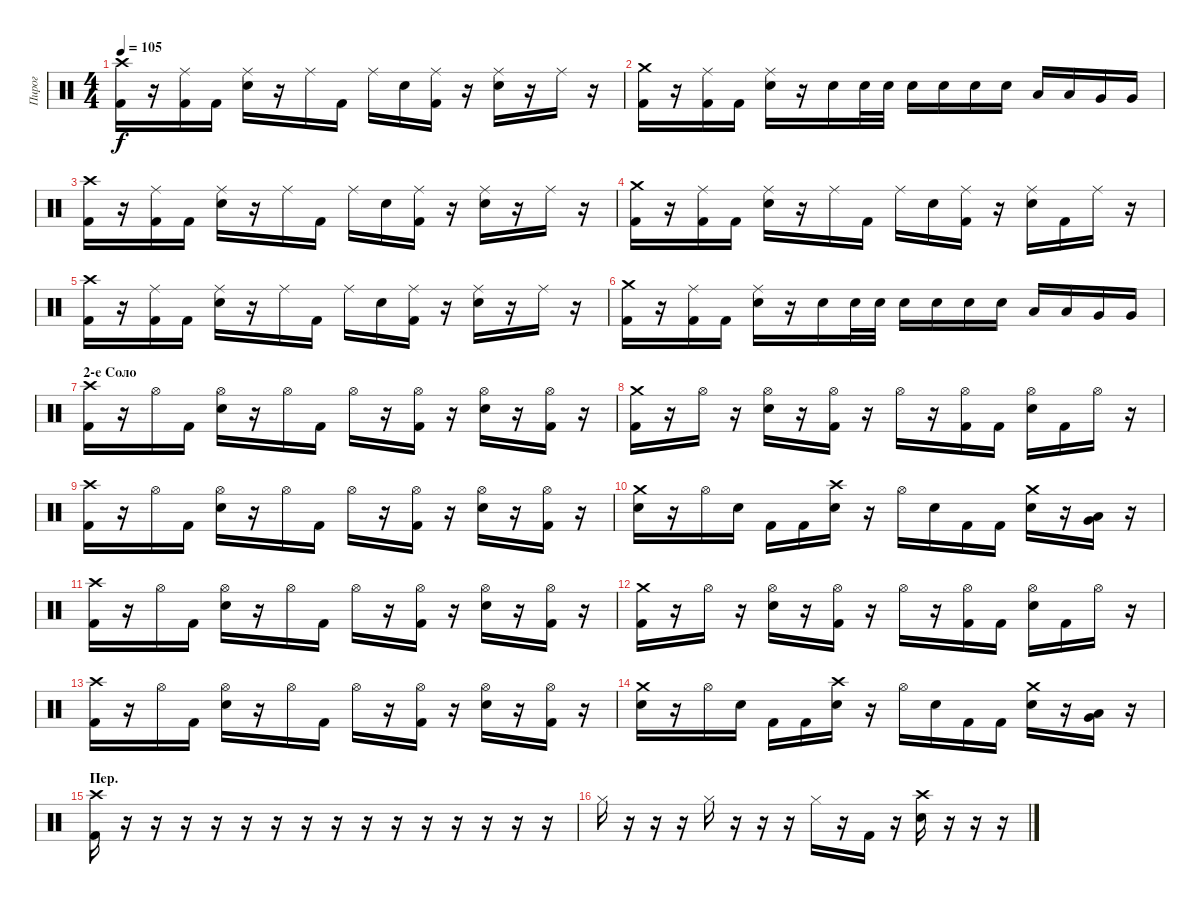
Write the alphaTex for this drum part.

\track ("Пирог" "Пирог") {instrument percussion}
\staff {score}
\articulation defaults
\ts (4 4)
\tempo 105
\clef neutral
\ks c
("Crash high (hit)" "Kick (hit) 2").16{dy f} r.16 ("Ride (middle)" "Kick (hit) 2").16 "Kick (hit) 2".16 ("Ride (middle)" "Electric Snare (hit)").16 r.16 "Ride (middle)".16 "Kick (hit) 2".16 "Ride (middle)".16 "Electric Snare (hit)".16 ("Ride (middle)" "Kick (hit) 2").16 r.16 ("Ride (middle)" "Electric Snare (hit)").16 r.16 "Ride (middle)".16 r.16 |
("Crash medium (hit)" "Kick (hit) 2").16 r.16 ("Ride (middle)" "Kick (hit) 2").16 "Kick (hit) 2".16 ("Ride (middle)" "Electric Snare (hit)").16 r.16 "Electric Snare (hit)".16 "Electric Snare (hit)".32 "Electric Snare (hit)".32 "Electric Snare (hit)".16 "Electric Snare (hit)".16 "Electric Snare (hit)".16 "Electric Snare (hit)".16 "Low Tom (hit)".16 "Low Tom (hit)".16 "Very Low Tom (hit)".16 "Very Low Tom (hit)".16 |
("Crash high (hit)" "Kick (hit) 2").16 r.16 ("Ride (middle)" "Kick (hit) 2").16 "Kick (hit) 2".16 ("Ride (middle)" "Electric Snare (hit)").16 r.16 "Ride (middle)".16 "Kick (hit) 2".16 "Ride (middle)".16 "Electric Snare (hit)".16 ("Ride (middle)" "Kick (hit) 2").16 r.16 ("Ride (middle)" "Electric Snare (hit)").16 r.16 "Ride (middle)".16 r.16 |
("Crash medium (hit)" "Kick (hit) 2").16 r.16 ("Ride (middle)" "Kick (hit) 2").16 "Kick (hit) 2".16 ("Ride (middle)" "Electric Snare (hit)").16 r.16 "Ride (middle)".16 "Kick (hit) 2".16 "Ride (middle)".16 "Electric Snare (hit)".16 ("Ride (middle)" "Kick (hit) 2").16 r.16 ("Ride (middle)" "Electric Snare (hit)").16 "Kick (hit) 2".16 "Ride (middle)".16 r.16 |
("Crash high (hit)" "Kick (hit) 2").16 r.16 ("Ride (middle)" "Kick (hit) 2").16 "Kick (hit) 2".16 ("Ride (middle)" "Electric Snare (hit)").16 r.16 "Ride (middle)".16 "Kick (hit) 2".16 "Ride (middle)".16 "Electric Snare (hit)".16 ("Ride (middle)" "Kick (hit) 2").16 r.16 ("Ride (middle)" "Electric Snare (hit)").16 r.16 "Ride (middle)".16 r.16 |
("Crash medium (hit)" "Kick (hit) 2").16 r.16 ("Ride (middle)" "Kick (hit) 2").16 "Kick (hit) 2".16 ("Ride (middle)" "Electric Snare (hit)").16 r.16 "Electric Snare (hit)".16 "Electric Snare (hit)".32 "Electric Snare (hit)".32 "Electric Snare (hit)".16 "Electric Snare (hit)".16 "Electric Snare (hit)".16 "Electric Snare (hit)".16 "Low Tom (hit)".16 "Low Tom (hit)".16 "Very Low Tom (hit)".16 "Very Low Tom (hit)".16 |
\section ("" "2-е Соло")
("Crash high (hit)" "Kick (hit) 2").16 r.16 "Hi-Hat (open)".16 "Kick (hit) 2".16 ("Hi-Hat (open)" "Electric Snare (hit)").16 r.16 "Hi-Hat (open)".16 "Kick (hit) 2".16 "Hi-Hat (open)".16 r.16 ("Hi-Hat (open)" "Kick (hit) 2").16 r.16 ("Hi-Hat (open)" "Electric Snare (hit)").16 r.16 ("Hi-Hat (open)" "Kick (hit) 2").16 r.16 |
("Crash medium (hit)" "Kick (hit) 2").16 r.16 "Hi-Hat (open)".16 r.16 ("Hi-Hat (open)" "Electric Snare (hit)").16 r.16 ("Hi-Hat (open)" "Kick (hit) 2").16 r.16 "Hi-Hat (open)".16 r.16 ("Hi-Hat (open)" "Kick (hit) 2").16 "Kick (hit) 2".16 ("Hi-Hat (open)" "Electric Snare (hit)").16 "Kick (hit) 2".16 "Hi-Hat (open)".16 r.16 |
("Crash high (hit)" "Kick (hit) 2").16 r.16 "Hi-Hat (open)".16 "Kick (hit) 2".16 ("Hi-Hat (open)" "Electric Snare (hit)").16 r.16 "Hi-Hat (open)".16 "Kick (hit) 2".16 "Hi-Hat (open)".16 r.16 ("Hi-Hat (open)" "Kick (hit) 2").16 r.16 ("Hi-Hat (open)" "Electric Snare (hit)").16 r.16 ("Hi-Hat (open)" "Kick (hit) 2").16 r.16 |
("Crash medium (hit)" "Electric Snare (hit)").16 r.16 "Hi-Hat (open)".16 "Electric Snare (hit)".16 "Kick (hit) 2".16 "Kick (hit) 2".16 ("Crash high (hit)" "Electric Snare (hit)").16 r.16 "Hi-Hat (open)".16 "Electric Snare (hit)".16 "Kick (hit) 2".16 "Kick (hit) 2".16 ("Crash medium (hit)" "Electric Snare (hit)").16 r.16 ("Very Low Tom (hit)" "Low Floor Tom (hit)").16 r.16 |
("Crash high (hit)" "Kick (hit) 2").16 r.16 "Hi-Hat (open)".16 "Kick (hit) 2".16 ("Hi-Hat (open)" "Electric Snare (hit)").16 r.16 "Hi-Hat (open)".16 "Kick (hit) 2".16 "Hi-Hat (open)".16 r.16 ("Hi-Hat (open)" "Kick (hit) 2").16 r.16 ("Hi-Hat (open)" "Electric Snare (hit)").16 r.16 ("Hi-Hat (open)" "Kick (hit) 2").16 r.16 |
("Crash medium (hit)" "Kick (hit) 2").16 r.16 "Hi-Hat (open)".16 r.16 ("Hi-Hat (open)" "Electric Snare (hit)").16 r.16 ("Hi-Hat (open)" "Kick (hit) 2").16 r.16 "Hi-Hat (open)".16 r.16 ("Hi-Hat (open)" "Kick (hit) 2").16 "Kick (hit) 2".16 ("Hi-Hat (open)" "Electric Snare (hit)").16 "Kick (hit) 2".16 "Hi-Hat (open)".16 r.16 |
("Crash high (hit)" "Kick (hit) 2").16 r.16 "Hi-Hat (open)".16 "Kick (hit) 2".16 ("Hi-Hat (open)" "Electric Snare (hit)").16 r.16 "Hi-Hat (open)".16 "Kick (hit) 2".16 "Hi-Hat (open)".16 r.16 ("Hi-Hat (open)" "Kick (hit) 2").16 r.16 ("Hi-Hat (open)" "Electric Snare (hit)").16 r.16 ("Hi-Hat (open)" "Kick (hit) 2").16 r.16 |
("Crash medium (hit)" "Electric Snare (hit)").16 r.16 "Hi-Hat (open)".16 "Electric Snare (hit)".16 "Kick (hit) 2".16 "Kick (hit) 2".16 ("Crash high (hit)" "Electric Snare (hit)").16 r.16 "Hi-Hat (open)".16 "Electric Snare (hit)".16 "Kick (hit) 2".16 "Kick (hit) 2".16 ("Crash medium (hit)" "Electric Snare (hit)").16 r.16 ("Very Low Tom (hit)" "Low Floor Tom (hit)").16 r.16 |
\section ("" "Пер.")
("Crash high (hit)" "Kick (hit) 2").16 r.16 r.16 r.16 r.16 r.16 r.16 r.16 r.16 r.16 r.16 r.16 r.16 r.16 r.16 r.16 |
"Hi-Hat (closed)".16 r.16 r.16 r.16 "Hi-Hat (closed)".16 r.16 r.16 r.16 "Hi-Hat (closed)".16 r.16 "Kick (hit) 2".16 r.16 ("Crash high (hit)" "Electric Snare (hit)").16 r.16 r.16 r.16
